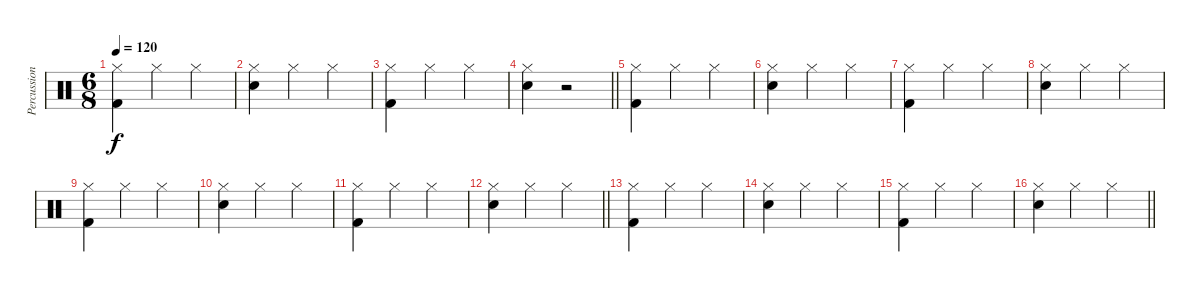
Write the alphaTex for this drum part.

\track ("Percussion" "Percussion") {instrument percussion}
\staff {score}
\articulation defaults
\ts (6 8)
\tempo 120
\clef neutral
\ks c
("Hi-Hat (closed)" "Kick (hit) 2").4{dy f} "Hi-Hat (closed)".4 "Hi-Hat (closed)".4 |
("Hi-Hat (closed)" "Snare (hit) 2").4 "Hi-Hat (closed)".4 "Hi-Hat (closed)".4 |
("Hi-Hat (closed)" "Kick (hit) 2").4 "Hi-Hat (closed)".4 "Hi-Hat (closed)".4 |
\barLineRight lightlight
("Hi-Hat (closed)" "Snare (hit) 2").4 r.2 |
\section ("" "")
("Hi-Hat (closed)" "Kick (hit) 2").4 "Hi-Hat (closed)".4 "Hi-Hat (closed)".4 |
("Hi-Hat (closed)" "Snare (hit) 2").4 "Hi-Hat (closed)".4 "Hi-Hat (closed)".4 |
("Hi-Hat (closed)" "Kick (hit) 2").4 "Hi-Hat (closed)".4 "Hi-Hat (closed)".4 |
("Hi-Hat (closed)" "Snare (hit) 2").4 "Hi-Hat (closed)".4 "Hi-Hat (closed)".4 |
("Hi-Hat (closed)" "Kick (hit) 2").4 "Hi-Hat (closed)".4 "Hi-Hat (closed)".4 |
("Hi-Hat (closed)" "Snare (hit) 2").4 "Hi-Hat (closed)".4 "Hi-Hat (closed)".4 |
("Hi-Hat (closed)" "Kick (hit) 2").4 "Hi-Hat (closed)".4 "Hi-Hat (closed)".4 |
\barLineRight lightlight
("Hi-Hat (closed)" "Snare (hit) 2").4 "Hi-Hat (closed)".4 "Hi-Hat (closed)".4 |
\section ("" "")
("Hi-Hat (closed)" "Kick (hit) 2").4 "Hi-Hat (closed)".4 "Hi-Hat (closed)".4 |
("Hi-Hat (closed)" "Snare (hit) 2").4 "Hi-Hat (closed)".4 "Hi-Hat (closed)".4 |
("Hi-Hat (closed)" "Kick (hit) 2").4 "Hi-Hat (closed)".4 "Hi-Hat (closed)".4 |
\barLineRight lightlight
("Hi-Hat (closed)" "Snare (hit) 2").4 "Hi-Hat (closed)".4 "Hi-Hat (closed)".4
